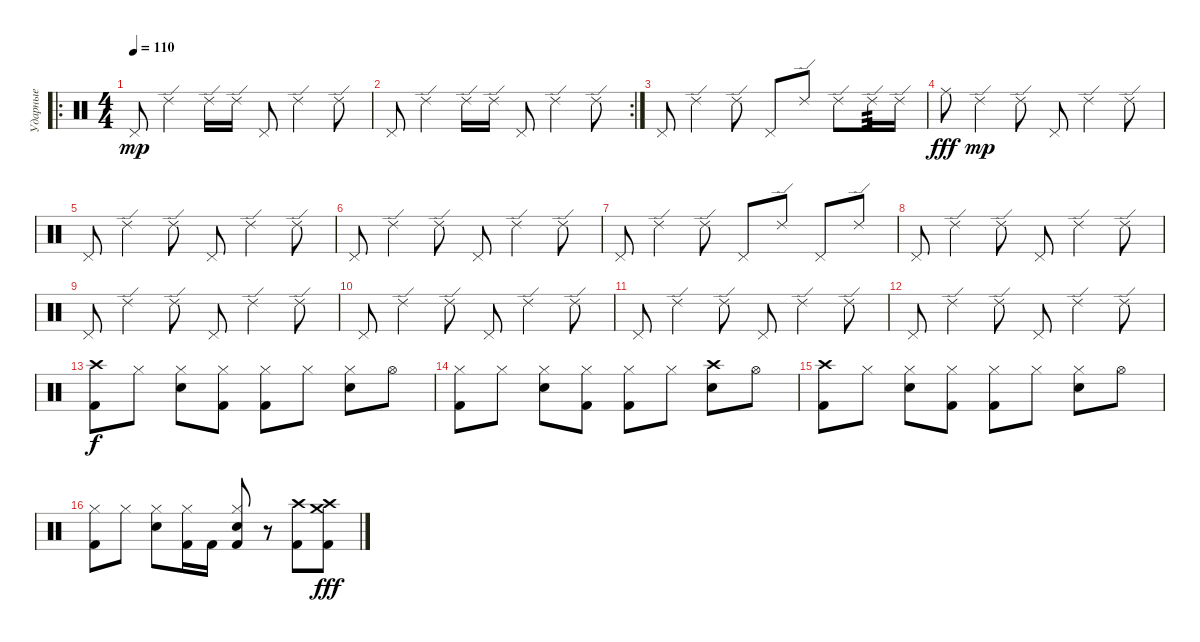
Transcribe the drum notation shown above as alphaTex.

\track ("Ударные" "Ударные") {instrument percussion}
\staff {score}
\articulation defaults
\ro
\ts (4 4)
\tempo 110
\clef neutral
\ks c "Pedal Hi-Hat (hit)".8{dy mp} "Ride (edge) 2".4 "Ride (edge) 2".16 "Ride (edge) 2".16 "Pedal Hi-Hat (hit)".8 "Ride (edge) 2".4 "Ride (edge) 2".8
|
\rc 2 "Pedal Hi-Hat (hit)".8 "Ride (edge) 2".4 "Ride (edge) 2".16 "Ride (edge) 2".16 "Pedal Hi-Hat (hit)".8 "Ride (edge) 2".4 "Ride (edge) 2".8
|
"Pedal Hi-Hat (hit)".8 "Ride (edge) 2".4 "Ride (edge) 2".8 "Pedal Hi-Hat (hit)".8 "Ride (edge) 2".8 "Ride (edge) 2".8 "Ride (edge) 2".16{tp 3} "Ride (edge) 2".16 |
"Ride (middle)".8{dy fff} "Ride (edge) 2".4{dy mp} "Ride (edge) 2".8 "Pedal Hi-Hat (hit)".8 "Ride (edge) 2".4 "Ride (edge) 2".8 |
"Pedal Hi-Hat (hit)".8 "Ride (edge) 2".4 "Ride (edge) 2".8 "Pedal Hi-Hat (hit)".8 "Ride (edge) 2".4 "Ride (edge) 2".8 |
"Pedal Hi-Hat (hit)".8 "Ride (edge) 2".4 "Ride (edge) 2".8 "Pedal Hi-Hat (hit)".8 "Ride (edge) 2".4 "Ride (edge) 2".8 |
"Pedal Hi-Hat (hit)".8 "Ride (edge) 2".4 "Ride (edge) 2".8 "Pedal Hi-Hat (hit)".8 "Ride (edge) 2".8 "Pedal Hi-Hat (hit)".8 "Ride (edge) 2".8 |
"Pedal Hi-Hat (hit)".8 "Ride (edge) 2".4 "Ride (edge) 2".8 "Pedal Hi-Hat (hit)".8 "Ride (edge) 2".4 "Ride (edge) 2".8 |
"Pedal Hi-Hat (hit)".8 "Ride (edge) 2".4 "Ride (edge) 2".8 "Pedal Hi-Hat (hit)".8 "Ride (edge) 2".4 "Ride (edge) 2".8 |
"Pedal Hi-Hat (hit)".8 "Ride (edge) 2".4 "Ride (edge) 2".8 "Pedal Hi-Hat (hit)".8 "Ride (edge) 2".4 "Ride (edge) 2".8 |
"Pedal Hi-Hat (hit)".8 "Ride (edge) 2".4 "Ride (edge) 2".8 "Pedal Hi-Hat (hit)".8 "Ride (edge) 2".4 "Ride (edge) 2".8 |
"Pedal Hi-Hat (hit)".8 "Ride (edge) 2".4 "Ride (edge) 2".8 "Pedal Hi-Hat (hit)".8 "Ride (edge) 2".4 "Ride (edge) 2".8 |
("Kick (hit) 2" "Crash high (hit)").8{dy f} "Hi-Hat (closed)".8 ("Electric Snare (hit)" "Hi-Hat (closed)").8 ("Kick (hit) 2" "Hi-Hat (closed)").8 ("Kick (hit) 2" "Hi-Hat (closed)").8 "Hi-Hat (closed)".8 ("Electric Snare (hit)" "Hi-Hat (closed)").8 "Hi-Hat (open)".8 |
("Kick (hit) 2" "Hi-Hat (closed)").8 "Hi-Hat (closed)".8 ("Electric Snare (hit)" "Hi-Hat (closed)").8 ("Kick (hit) 2" "Hi-Hat (closed)").8 ("Kick (hit) 2" "Hi-Hat (closed)").8 "Hi-Hat (closed)".8 ("Electric Snare (hit)" "Crash high (hit)").8 "Hi-Hat (open)".8 |
("Kick (hit) 2" "Crash high (hit)").8 "Hi-Hat (closed)".8 ("Electric Snare (hit)" "Hi-Hat (closed)").8 ("Kick (hit) 2" "Hi-Hat (closed)").8 ("Kick (hit) 2" "Hi-Hat (closed)").8 "Hi-Hat (closed)".8 ("Electric Snare (hit)" "Hi-Hat (closed)").8 "Hi-Hat (open)".8 |
("Kick (hit) 2" "Hi-Hat (closed)").8 "Hi-Hat (closed)".8 ("Electric Snare (hit)" "Hi-Hat (closed)").8 ("Kick (hit) 2" "Hi-Hat (closed)").16 "Kick (hit) 2".16 ("Electric Snare (hit)" "Hi-Hat (closed)" "Kick (hit) 2").8 r.8 ("Kick (hit) 2" "Crash high (hit)").8 ("Kick (hit) 2" "Crash medium (hit)" "Crash high (hit)").8{dy fff}
